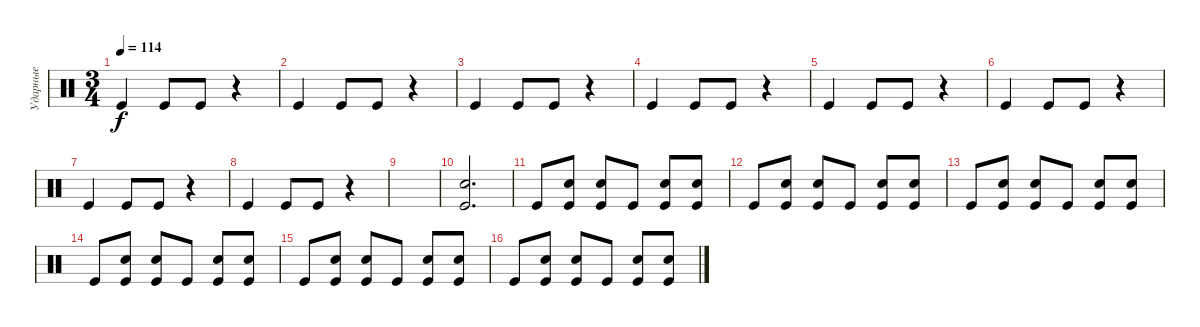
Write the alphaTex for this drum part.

\track ("Ударные" "Ударные") {instrument percussion}
\staff {score}
\articulation defaults
\ts (3 4)
\tempo 114
\clef neutral
\ks c "Kick (hit)".4{dy f} "Kick (hit)".8 "Kick (hit)".8
r.4 |
"Kick (hit)".4 "Kick (hit)".8 "Kick (hit)".8 r.4 |
"Kick (hit)".4 "Kick (hit)".8 "Kick (hit)".8 r.4 |
"Kick (hit)".4 "Kick (hit)".8 "Kick (hit)".8 r.4 |
"Kick (hit)".4 "Kick (hit)".8 "Kick (hit)".8 r.4 |
"Kick (hit)".4 "Kick (hit)".8 "Kick (hit)".8 r.4 |
"Kick (hit)".4 "Kick (hit)".8 "Kick (hit)".8 r.4 |
"Kick (hit)".4 "Kick (hit)".8 "Kick (hit)".8 r.4 |
|
("Kick (hit)" "Snare (hit) 2").2{d volume 15} |
"Kick (hit)".8{volume 10} ("Snare (hit) 2" "Kick (hit)").8 ("Snare (hit) 2" "Kick (hit)").8 "Kick (hit)".8 ("Snare (hit) 2" "Kick (hit)").8 ("Snare (hit) 2" "Kick (hit)").8 |
"Kick (hit)".8 ("Snare (hit) 2" "Kick (hit)").8 ("Snare (hit) 2" "Kick (hit)").8 "Kick (hit)".8 ("Snare (hit) 2" "Kick (hit)").8 ("Snare (hit) 2" "Kick (hit)").8 |
"Kick (hit)".8 ("Snare (hit) 2" "Kick (hit)").8 ("Snare (hit) 2" "Kick (hit)").8 "Kick (hit)".8 ("Snare (hit) 2" "Kick (hit)").8 ("Snare (hit) 2" "Kick (hit)").8 |
"Kick (hit)".8 ("Snare (hit) 2" "Kick (hit)").8 ("Snare (hit) 2" "Kick (hit)").8 "Kick (hit)".8 ("Snare (hit) 2" "Kick (hit)").8 ("Snare (hit) 2" "Kick (hit)").8 |
"Kick (hit)".8 ("Snare (hit) 2" "Kick (hit)").8 ("Snare (hit) 2" "Kick (hit)").8 "Kick (hit)".8 ("Snare (hit) 2" "Kick (hit)").8 ("Snare (hit) 2" "Kick (hit)").8 |
"Kick (hit)".8 ("Snare (hit) 2" "Kick (hit)").8 ("Snare (hit) 2" "Kick (hit)").8 "Kick (hit)".8 ("Snare (hit) 2" "Kick (hit)").8 ("Snare (hit) 2" "Kick (hit)").8
